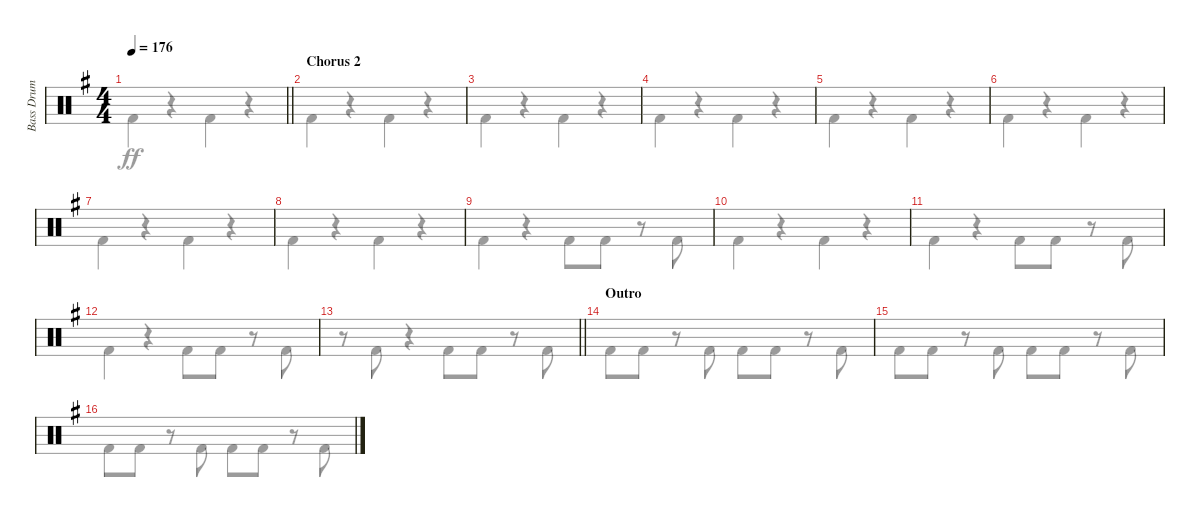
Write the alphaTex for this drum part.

\track ("Bass Drum" "Bass Drum") {instrument percussion}
\staff {score}
\articulation defaults
\voice
\ts (4 4)
\tempo 176
\clef neutral
\barLineRight lightlight
\ks eminor
|
\section ("" "Chorus 2")
|
|
|
|
|
|
|
|
|
|
|
\barLineRight lightlight
|
\section ("" "Outro")
|
|
\voice
\clef neutral
\barLineRight lightlight
\ks eminor "Kick (hit) 2".4{dy ff}
r.4 "Kick (hit) 2".4 r.4 |
"Kick (hit) 2".4 r.4 "Kick (hit) 2".4 r.4 |
"Kick (hit) 2".4 r.4 "Kick (hit) 2".4 r.4 |
"Kick (hit) 2".4 r.4 "Kick (hit) 2".4 r.4 |
"Kick (hit) 2".4 r.4 "Kick (hit) 2".4 r.4 |
"Kick (hit) 2".4 r.4 "Kick (hit) 2".4 r.4 |
"Kick (hit) 2".4 r.4 "Kick (hit) 2".4 r.4 |
"Kick (hit) 2".4 r.4 "Kick (hit) 2".4 r.4 |
"Kick (hit) 2".4 r.4 "Kick (hit) 2".8 "Kick (hit) 2".8 r.8 "Kick (hit) 2".8 |
"Kick (hit) 2".4 r.4 "Kick (hit) 2".4 r.4 |
"Kick (hit) 2".4 r.4 "Kick (hit) 2".8 "Kick (hit) 2".8 r.8 "Kick (hit) 2".8 |
"Kick (hit) 2".4 r.4 "Kick (hit) 2".8 "Kick (hit) 2".8 r.8 "Kick (hit) 2".8 |
\barLineRight lightlight
r.8 "Kick (hit) 2".8 r.4 "Kick (hit) 2".8 "Kick (hit) 2".8 r.8 "Kick (hit) 2".8 |
"Kick (hit) 2".8 "Kick (hit) 2".8 r.8 "Kick (hit) 2".8 "Kick (hit) 2".8 "Kick (hit) 2".8 r.8 "Kick (hit) 2".8 |
"Kick (hit) 2".8 "Kick (hit) 2".8 r.8 "Kick (hit) 2".8 "Kick (hit) 2".8 "Kick (hit) 2".8 r.8 "Kick (hit) 2".8 |
"Kick (hit) 2".8 "Kick (hit) 2".8 r.8 "Kick (hit) 2".8 "Kick (hit) 2".8 "Kick (hit) 2".8 r.8 "Kick (hit) 2".8
